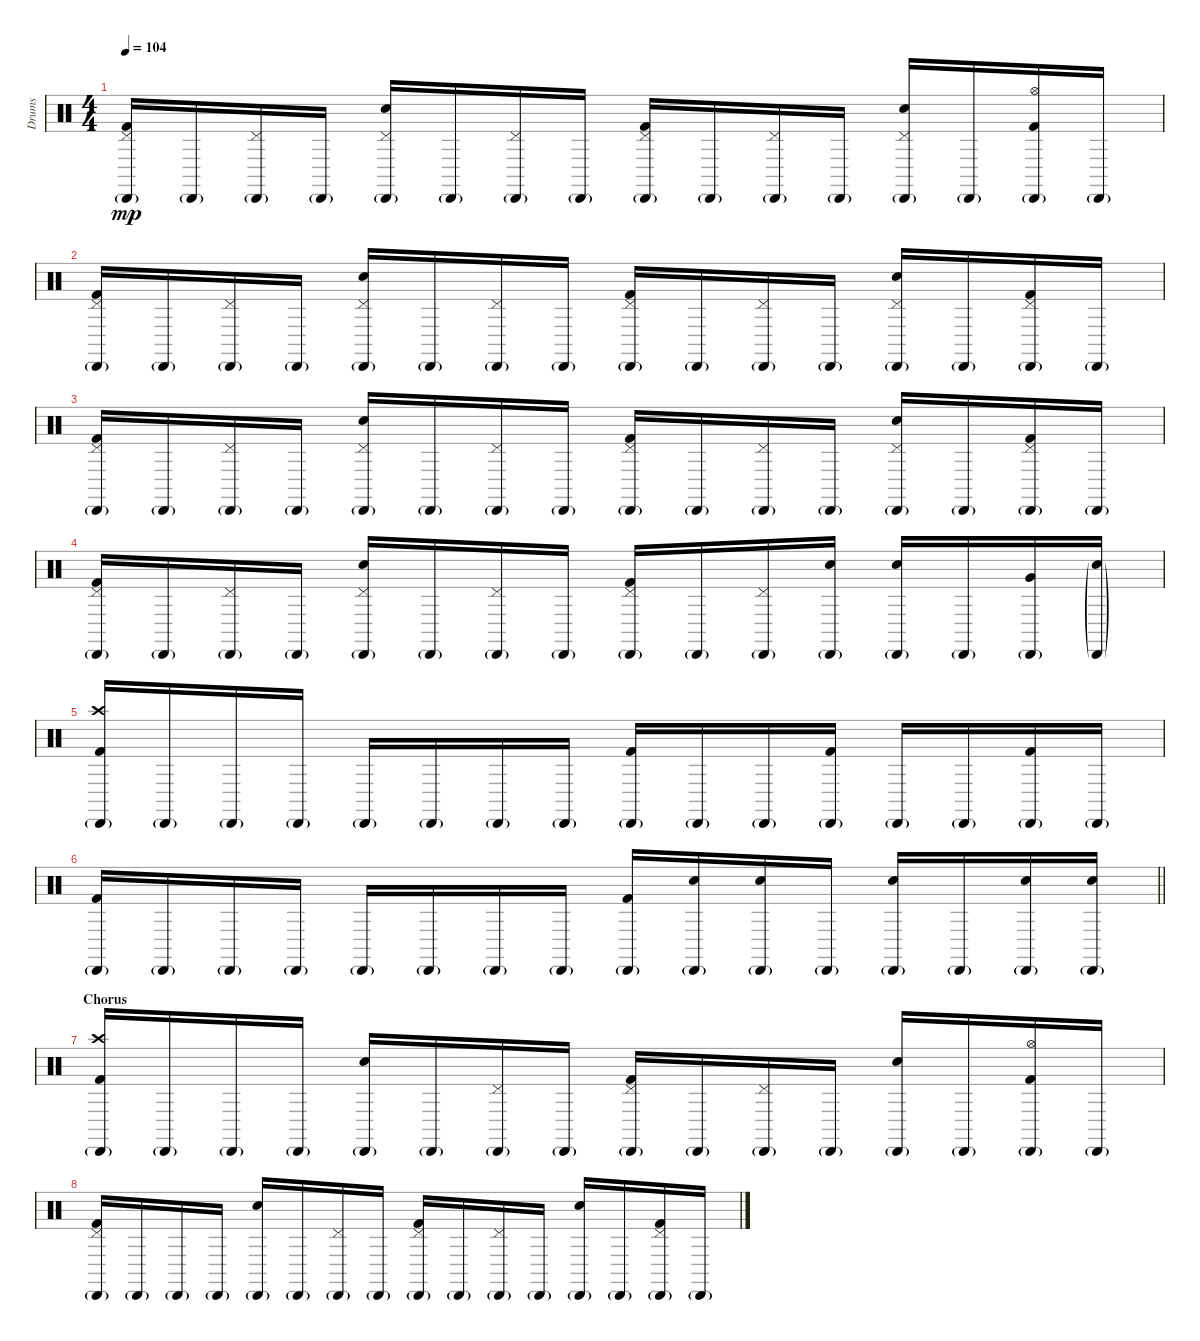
\track ("Drums" "Drums") {instrument percussion}
\staff {score}
\articulation defaults
\ts (4 4)
\tempo 104
\clef neutral
\ks c
("Pedal Hi-Hat (hit)" "Cabasa (hit)"{g} "Kick (hit) 2").16{dy mp} "Cabasa (hit)"{g}.16 ("Pedal Hi-Hat (hit)" "Cabasa (hit)"{g}).16 "Cabasa (hit)"{g}.16 ("Snare (hit) 2" "Pedal Hi-Hat (hit)" "Cabasa (hit)"{g}).16 "Cabasa (hit)"{g}.16 ("Pedal Hi-Hat (hit)" "Cabasa (hit)"{g}).16 "Cabasa (hit)"{g}.16 ("Pedal Hi-Hat (hit)" "Cabasa (hit)"{g} "Kick (hit) 2").16 "Cabasa (hit)"{g}.16 ("Pedal Hi-Hat (hit)" "Cabasa (hit)"{g}).16 "Cabasa (hit)"{g}.16 ("Snare (hit) 2" "Pedal Hi-Hat (hit)" "Cabasa (hit)"{g}).16 "Cabasa (hit)"{g}.16 ("Hi-Hat (open)" "Cabasa (hit)"{g} "Kick (hit) 2").16 "Cabasa (hit)"{g}.16 |
("Pedal Hi-Hat (hit)" "Cabasa (hit)"{g} "Kick (hit) 2").16 "Cabasa (hit)"{g}.16 ("Pedal Hi-Hat (hit)" "Cabasa (hit)"{g}).16 "Cabasa (hit)"{g}.16 ("Snare (hit) 2" "Pedal Hi-Hat (hit)" "Cabasa (hit)"{g}).16 "Cabasa (hit)"{g}.16 ("Pedal Hi-Hat (hit)" "Cabasa (hit)"{g}).16 "Cabasa (hit)"{g}.16 ("Pedal Hi-Hat (hit)" "Cabasa (hit)"{g} "Kick (hit) 2").16 "Cabasa (hit)"{g}.16 ("Pedal Hi-Hat (hit)" "Cabasa (hit)"{g}).16 "Cabasa (hit)"{g}.16 ("Snare (hit) 2" "Pedal Hi-Hat (hit)" "Cabasa (hit)"{g}).16 "Cabasa (hit)"{g}.16 ("Pedal Hi-Hat (hit)" "Cabasa (hit)"{g} "Kick (hit) 2").16 "Cabasa (hit)"{g}.16 |
("Pedal Hi-Hat (hit)" "Cabasa (hit)"{g} "Kick (hit) 2").16 "Cabasa (hit)"{g}.16 ("Pedal Hi-Hat (hit)" "Cabasa (hit)"{g}).16 "Cabasa (hit)"{g}.16 ("Snare (hit) 2" "Pedal Hi-Hat (hit)" "Cabasa (hit)"{g}).16 "Cabasa (hit)"{g}.16 ("Pedal Hi-Hat (hit)" "Cabasa (hit)"{g}).16 "Cabasa (hit)"{g}.16 ("Pedal Hi-Hat (hit)" "Cabasa (hit)"{g} "Kick (hit) 2").16 "Cabasa (hit)"{g}.16 ("Pedal Hi-Hat (hit)" "Cabasa (hit)"{g}).16 "Cabasa (hit)"{g}.16 ("Snare (hit) 2" "Pedal Hi-Hat (hit)" "Cabasa (hit)"{g}).16 "Cabasa (hit)"{g}.16 ("Pedal Hi-Hat (hit)" "Cabasa (hit)"{g} "Kick (hit) 2").16 "Cabasa (hit)"{g}.16 |
("Pedal Hi-Hat (hit)" "Cabasa (hit)"{g} "Kick (hit) 2").16 "Cabasa (hit)"{g}.16 ("Pedal Hi-Hat (hit)" "Cabasa (hit)"{g}).16 "Cabasa (hit)"{g}.16 ("Snare (hit) 2" "Pedal Hi-Hat (hit)" "Cabasa (hit)"{g}).16 "Cabasa (hit)"{g}.16 ("Pedal Hi-Hat (hit)" "Cabasa (hit)"{g}).16 "Cabasa (hit)"{g}.16 ("Pedal Hi-Hat (hit)" "Cabasa (hit)"{g} "Kick (hit) 2").16 "Cabasa (hit)"{g}.16 ("Pedal Hi-Hat (hit)" "Cabasa (hit)"{g}).16 ("Snare (hit) 2" "Cabasa (hit)"{g}).16 ("Snare (hit) 2" "Cabasa (hit)"{g}).16 "Cabasa (hit)"{g}.16 ("Very Low Tom (hit)" "Cabasa (hit)"{g}).16 ("Snare (hit) 2"{g} "Cabasa (hit)"{g}).16 |
("Crash high (hit)" "Cabasa (hit)"{g} "Kick (hit) 2").16 "Cabasa (hit)"{g}.16 "Cabasa (hit)"{g}.16 "Cabasa (hit)"{g}.16 "Cabasa (hit)"{g}.16 "Cabasa (hit)"{g}.16 "Cabasa (hit)"{g}.16 "Cabasa (hit)"{g}.16 ("Cabasa (hit)"{g} "Kick (hit) 2").16 "Cabasa (hit)"{g}.16 "Cabasa (hit)"{g}.16 ("Cabasa (hit)"{g} "Kick (hit) 2").16 "Cabasa (hit)"{g}.16 "Cabasa (hit)"{g}.16 ("Cabasa (hit)"{g} "Kick (hit) 2").16 "Cabasa (hit)"{g}.16 |
\barLineRight lightlight
("Cabasa (hit)"{g} "Kick (hit) 2").16 "Cabasa (hit)"{g}.16 "Cabasa (hit)"{g}.16 "Cabasa (hit)"{g}.16 "Cabasa (hit)"{g}.16 "Cabasa (hit)"{g}.16 "Cabasa (hit)"{g}.16 "Cabasa (hit)"{g}.16 ("Cabasa (hit)"{g} "Kick (hit) 2").16 ("Snare (hit) 2" "Cabasa (hit)"{g}).16 ("Snare (hit) 2" "Cabasa (hit)"{g}).16 "Cabasa (hit)"{g}.16 ("Snare (hit) 2" "Cabasa (hit)"{g}).16 "Cabasa (hit)"{g}.16 ("Snare (hit) 2" "Cabasa (hit)"{g}).16 ("Snare (hit) 2" "Cabasa (hit)"{g}).16 |
\section ("" "Chorus")
("Crash high (hit)" "Cabasa (hit)"{g} "Kick (hit) 2").16 "Cabasa (hit)"{g}.16 "Cabasa (hit)"{g}.16 "Cabasa (hit)"{g}.16 ("Snare (hit) 2" "Cabasa (hit)"{g}).16 "Cabasa (hit)"{g}.16 ("Pedal Hi-Hat (hit)" "Cabasa (hit)"{g}).16 "Cabasa (hit)"{g}.16 ("Pedal Hi-Hat (hit)" "Cabasa (hit)"{g} "Kick (hit) 2").16 "Cabasa (hit)"{g}.16 ("Pedal Hi-Hat (hit)" "Cabasa (hit)"{g}).16 "Cabasa (hit)"{g}.16 ("Snare (hit) 2" "Cabasa (hit)"{g}).16 "Cabasa (hit)"{g}.16 ("Hi-Hat (open)" "Cabasa (hit)"{g} "Kick (hit) 2").16 "Cabasa (hit)"{g}.16 |
("Pedal Hi-Hat (hit)" "Cabasa (hit)"{g} "Kick (hit) 2").16 "Cabasa (hit)"{g}.16 "Cabasa (hit)"{g}.16 "Cabasa (hit)"{g}.16 ("Snare (hit) 2" "Cabasa (hit)"{g}).16 "Cabasa (hit)"{g}.16 ("Pedal Hi-Hat (hit)" "Cabasa (hit)"{g}).16 "Cabasa (hit)"{g}.16 ("Pedal Hi-Hat (hit)" "Cabasa (hit)"{g} "Kick (hit) 2").16 "Cabasa (hit)"{g}.16 ("Pedal Hi-Hat (hit)" "Cabasa (hit)"{g}).16 "Cabasa (hit)"{g}.16 ("Snare (hit) 2" "Cabasa (hit)"{g}).16 "Cabasa (hit)"{g}.16 ("Pedal Hi-Hat (hit)" "Cabasa (hit)"{g} "Kick (hit) 2").16 "Cabasa (hit)"{g}.16
